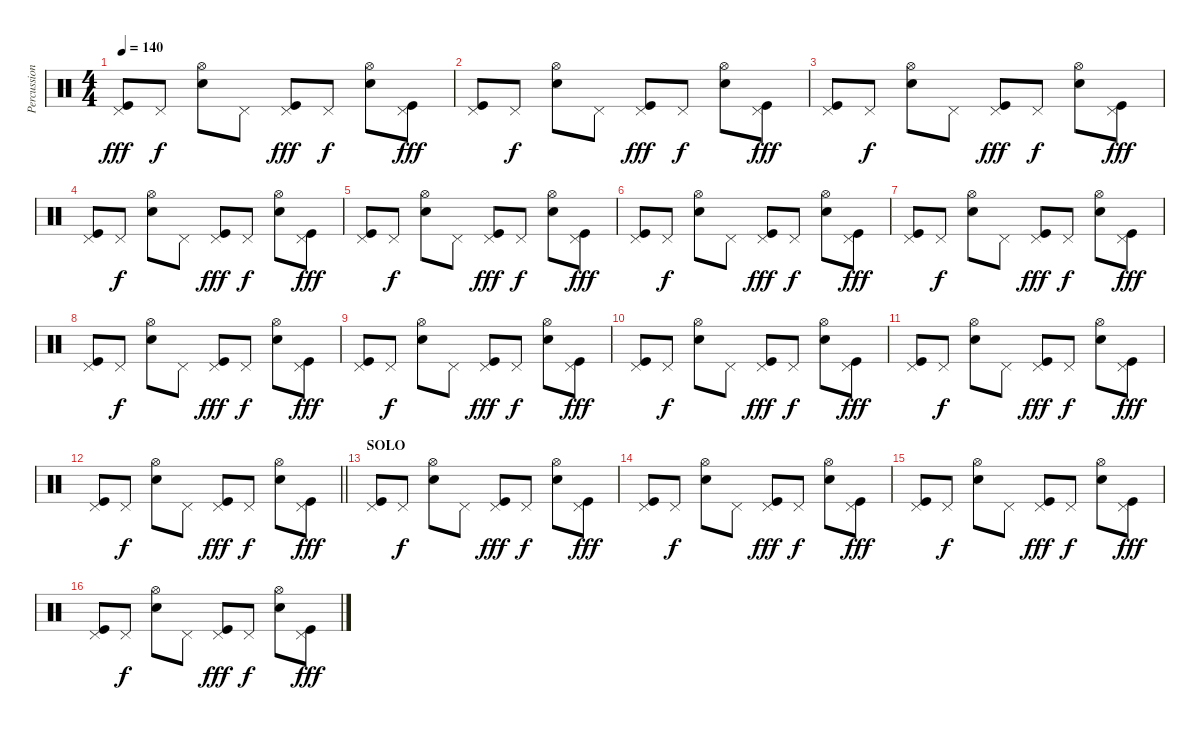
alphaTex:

\track ("Percussion" "Percussion") {instrument percussion}
\staff {score}
\articulation defaults
\ts (4 4)
\tempo 140
\clef neutral
\ks c
("Kick (hit)" "Pedal Hi-Hat (hit)").8{dy fff} "Pedal Hi-Hat (hit)".8{dy f} ("Metronome (bell)" "Hi-Hat (open)").8 "Pedal Hi-Hat (hit)".8 ("Kick (hit)" "Pedal Hi-Hat (hit)").8{dy fff} "Pedal Hi-Hat (hit)".8{dy f} ("Metronome (bell)" "Hi-Hat (open)").8 ("Kick (hit)" "Pedal Hi-Hat (hit)").8{dy fff} |
("Kick (hit)" "Pedal Hi-Hat (hit)").8 "Pedal Hi-Hat (hit)".8{dy f} ("Metronome (bell)" "Hi-Hat (open)").8 "Pedal Hi-Hat (hit)".8 ("Kick (hit)" "Pedal Hi-Hat (hit)").8{dy fff} "Pedal Hi-Hat (hit)".8{dy f} ("Metronome (bell)" "Hi-Hat (open)").8 ("Kick (hit)" "Pedal Hi-Hat (hit)").8{dy fff} |
("Kick (hit)" "Pedal Hi-Hat (hit)").8 "Pedal Hi-Hat (hit)".8{dy f} ("Metronome (bell)" "Hi-Hat (open)").8 "Pedal Hi-Hat (hit)".8 ("Kick (hit)" "Pedal Hi-Hat (hit)").8{dy fff} "Pedal Hi-Hat (hit)".8{dy f} ("Metronome (bell)" "Hi-Hat (open)").8 ("Kick (hit)" "Pedal Hi-Hat (hit)").8{dy fff} |
("Kick (hit)" "Pedal Hi-Hat (hit)").8 "Pedal Hi-Hat (hit)".8{dy f} ("Metronome (bell)" "Hi-Hat (open)").8 "Pedal Hi-Hat (hit)".8 ("Kick (hit)" "Pedal Hi-Hat (hit)").8{dy fff} "Pedal Hi-Hat (hit)".8{dy f} ("Metronome (bell)" "Hi-Hat (open)").8 ("Kick (hit)" "Pedal Hi-Hat (hit)").8{dy fff} |
("Kick (hit)" "Pedal Hi-Hat (hit)").8 "Pedal Hi-Hat (hit)".8{dy f} ("Metronome (bell)" "Hi-Hat (open)").8 "Pedal Hi-Hat (hit)".8 ("Kick (hit)" "Pedal Hi-Hat (hit)").8{dy fff} "Pedal Hi-Hat (hit)".8{dy f} ("Metronome (bell)" "Hi-Hat (open)").8 ("Kick (hit)" "Pedal Hi-Hat (hit)").8{dy fff} |
("Kick (hit)" "Pedal Hi-Hat (hit)").8 "Pedal Hi-Hat (hit)".8{dy f} ("Metronome (bell)" "Hi-Hat (open)").8 "Pedal Hi-Hat (hit)".8 ("Kick (hit)" "Pedal Hi-Hat (hit)").8{dy fff} "Pedal Hi-Hat (hit)".8{dy f} ("Metronome (bell)" "Hi-Hat (open)").8 ("Kick (hit)" "Pedal Hi-Hat (hit)").8{dy fff} |
("Kick (hit)" "Pedal Hi-Hat (hit)").8 "Pedal Hi-Hat (hit)".8{dy f} ("Metronome (bell)" "Hi-Hat (open)").8 "Pedal Hi-Hat (hit)".8 ("Kick (hit)" "Pedal Hi-Hat (hit)").8{dy fff} "Pedal Hi-Hat (hit)".8{dy f} ("Metronome (bell)" "Hi-Hat (open)").8 ("Kick (hit)" "Pedal Hi-Hat (hit)").8{dy fff} |
("Kick (hit)" "Pedal Hi-Hat (hit)").8 "Pedal Hi-Hat (hit)".8{dy f} ("Metronome (bell)" "Hi-Hat (open)").8 "Pedal Hi-Hat (hit)".8 ("Kick (hit)" "Pedal Hi-Hat (hit)").8{dy fff} "Pedal Hi-Hat (hit)".8{dy f} ("Metronome (bell)" "Hi-Hat (open)").8 ("Kick (hit)" "Pedal Hi-Hat (hit)").8{dy fff} |
("Kick (hit)" "Pedal Hi-Hat (hit)").8 "Pedal Hi-Hat (hit)".8{dy f} ("Metronome (bell)" "Hi-Hat (open)").8 "Pedal Hi-Hat (hit)".8 ("Kick (hit)" "Pedal Hi-Hat (hit)").8{dy fff} "Pedal Hi-Hat (hit)".8{dy f} ("Metronome (bell)" "Hi-Hat (open)").8 ("Kick (hit)" "Pedal Hi-Hat (hit)").8{dy fff} |
("Kick (hit)" "Pedal Hi-Hat (hit)").8 "Pedal Hi-Hat (hit)".8{dy f} ("Metronome (bell)" "Hi-Hat (open)").8 "Pedal Hi-Hat (hit)".8 ("Kick (hit)" "Pedal Hi-Hat (hit)").8{dy fff} "Pedal Hi-Hat (hit)".8{dy f} ("Metronome (bell)" "Hi-Hat (open)").8 ("Kick (hit)" "Pedal Hi-Hat (hit)").8{dy fff} |
("Kick (hit)" "Pedal Hi-Hat (hit)").8 "Pedal Hi-Hat (hit)".8{dy f} ("Metronome (bell)" "Hi-Hat (open)").8 "Pedal Hi-Hat (hit)".8 ("Kick (hit)" "Pedal Hi-Hat (hit)").8{dy fff} "Pedal Hi-Hat (hit)".8{dy f} ("Metronome (bell)" "Hi-Hat (open)").8 ("Kick (hit)" "Pedal Hi-Hat (hit)").8{dy fff} |
\barLineRight lightlight
("Kick (hit)" "Pedal Hi-Hat (hit)").8 "Pedal Hi-Hat (hit)".8{dy f} ("Metronome (bell)" "Hi-Hat (open)").8 "Pedal Hi-Hat (hit)".8 ("Kick (hit)" "Pedal Hi-Hat (hit)").8{dy fff} "Pedal Hi-Hat (hit)".8{dy f} ("Metronome (bell)" "Hi-Hat (open)").8 ("Kick (hit)" "Pedal Hi-Hat (hit)").8{dy fff} |
\section ("" "SOLO")
("Kick (hit)" "Pedal Hi-Hat (hit)").8 "Pedal Hi-Hat (hit)".8{dy f} ("Metronome (bell)" "Hi-Hat (open)").8 "Pedal Hi-Hat (hit)".8 ("Kick (hit)" "Pedal Hi-Hat (hit)").8{dy fff} "Pedal Hi-Hat (hit)".8{dy f} ("Metronome (bell)" "Hi-Hat (open)").8 ("Kick (hit)" "Pedal Hi-Hat (hit)").8{dy fff} |
("Kick (hit)" "Pedal Hi-Hat (hit)").8 "Pedal Hi-Hat (hit)".8{dy f} ("Metronome (bell)" "Hi-Hat (open)").8 "Pedal Hi-Hat (hit)".8 ("Kick (hit)" "Pedal Hi-Hat (hit)").8{dy fff} "Pedal Hi-Hat (hit)".8{dy f} ("Metronome (bell)" "Hi-Hat (open)").8 ("Kick (hit)" "Pedal Hi-Hat (hit)").8{dy fff} |
("Kick (hit)" "Pedal Hi-Hat (hit)").8 "Pedal Hi-Hat (hit)".8{dy f} ("Metronome (bell)" "Hi-Hat (open)").8 "Pedal Hi-Hat (hit)".8 ("Kick (hit)" "Pedal Hi-Hat (hit)").8{dy fff} "Pedal Hi-Hat (hit)".8{dy f} ("Metronome (bell)" "Hi-Hat (open)").8 ("Kick (hit)" "Pedal Hi-Hat (hit)").8{dy fff} |
("Kick (hit)" "Pedal Hi-Hat (hit)").8 "Pedal Hi-Hat (hit)".8{dy f} ("Metronome (bell)" "Hi-Hat (open)").8 "Pedal Hi-Hat (hit)".8 ("Kick (hit)" "Pedal Hi-Hat (hit)").8{dy fff} "Pedal Hi-Hat (hit)".8{dy f} ("Metronome (bell)" "Hi-Hat (open)").8 ("Kick (hit)" "Pedal Hi-Hat (hit)").8{dy fff}
